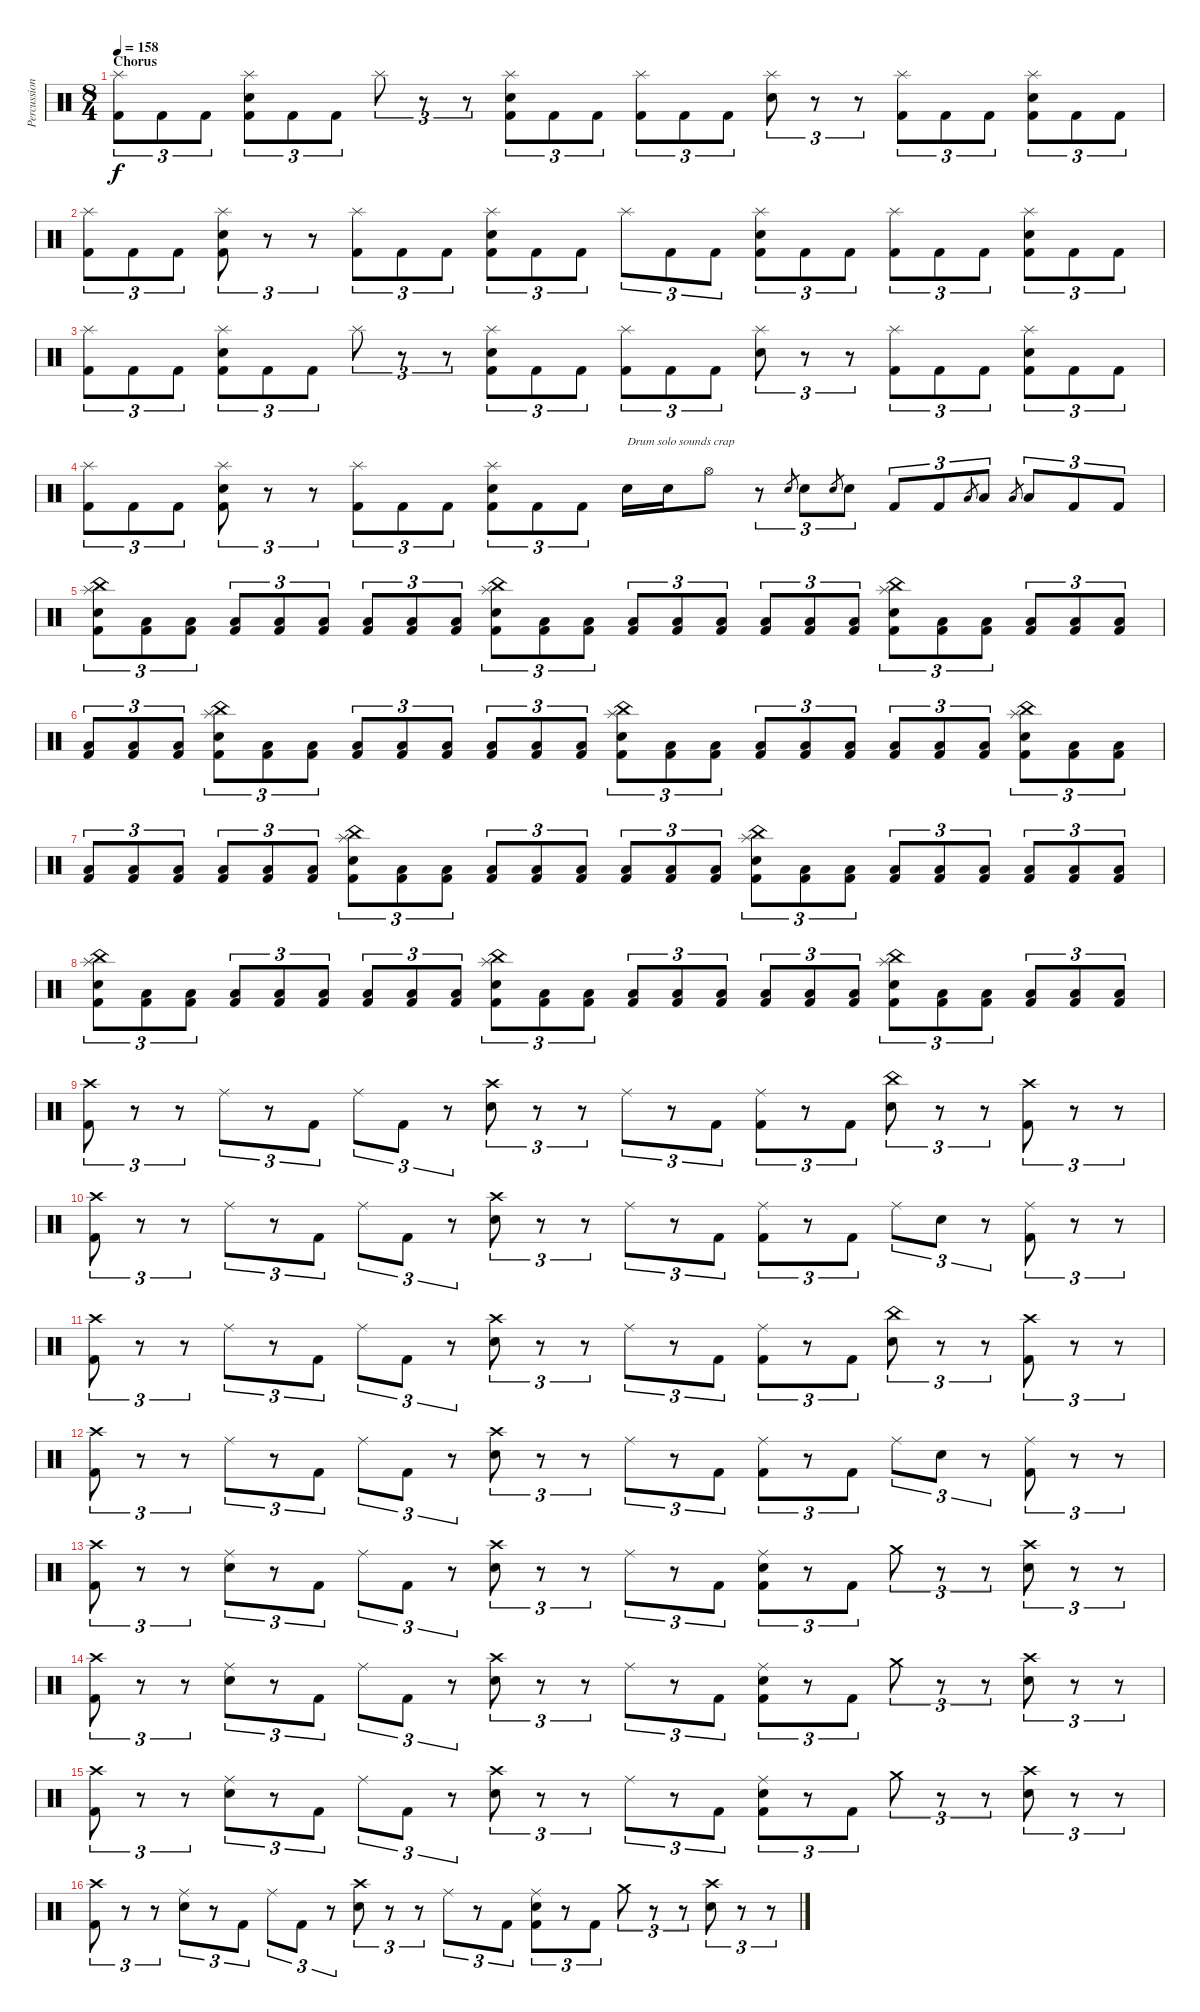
\track ("Percussion" "Percussion") {instrument percussion}
\staff {score}
\articulation defaults
\ts (8 4)
\section ("" "Chorus")
\tempo 158
\clef neutral
\ks c
("Splash (hit)" "Kick (hit) 2").8{tu (3 2) dy f} "Kick (hit) 2".8{tu (3 2)} "Kick (hit) 2".8{tu (3 2)} ("Splash (hit)" "Electric Snare (hit)" "Kick (hit) 2").8{tu (3 2)} "Kick (hit) 2".8{tu (3 2)} "Kick (hit) 2".8{tu (3 2)} "Splash (hit)".8{tu (3 2)} r.8{tu (3 2)} r.8{tu (3 2)} ("Splash (hit)" "Electric Snare (hit)" "Kick (hit) 2").8{tu (3 2)} "Kick (hit) 2".8{tu (3 2)} "Kick (hit) 2".8{tu (3 2)} ("Splash (hit)" "Kick (hit) 2").8{tu (3 2)} "Kick (hit) 2".8{tu (3 2)} "Kick (hit) 2".8{tu (3 2)} ("Splash (hit)" "Electric Snare (hit)").8{tu (3 2)} r.8{tu (3 2)} r.8{tu (3 2)} ("Splash (hit)" "Kick (hit) 2").8{tu (3 2)} "Kick (hit) 2".8{tu (3 2)} "Kick (hit) 2".8{tu (3 2)} ("Splash (hit)" "Electric Snare (hit)" "Kick (hit) 2").8{tu (3 2)} "Kick (hit) 2".8{tu (3 2)} "Kick (hit) 2".8{tu (3 2)} |
("Splash (hit)" "Kick (hit) 2").8{tu (3 2)} "Kick (hit) 2".8{tu (3 2)} "Kick (hit) 2".8{tu (3 2)} ("Splash (hit)" "Electric Snare (hit)" "Kick (hit) 2").8{tu (3 2)} r.8{tu (3 2)} r.8{tu (3 2)} ("Splash (hit)" "Kick (hit) 2").8{tu (3 2)} "Kick (hit) 2".8{tu (3 2)} "Kick (hit) 2".8{tu (3 2)} ("Splash (hit)" "Electric Snare (hit)" "Kick (hit) 2").8{tu (3 2)} "Kick (hit) 2".8{tu (3 2)} "Kick (hit) 2".8{tu (3 2)} "Splash (hit)".8{tu (3 2)} "Kick (hit) 2".8{tu (3 2)} "Kick (hit) 2".8{tu (3 2)} ("Splash (hit)" "Electric Snare (hit)" "Kick (hit) 2").8{tu (3 2)} "Kick (hit) 2".8{tu (3 2)} "Kick (hit) 2".8{tu (3 2)} ("Splash (hit)" "Kick (hit) 2").8{tu (3 2)} "Kick (hit) 2".8{tu (3 2)} "Kick (hit) 2".8{tu (3 2)} ("Splash (hit)" "Electric Snare (hit)" "Kick (hit) 2").8{tu (3 2)} "Kick (hit) 2".8{tu (3 2)} "Kick (hit) 2".8{tu (3 2)} |
("Splash (hit)" "Kick (hit) 2").8{tu (3 2)} "Kick (hit) 2".8{tu (3 2)} "Kick (hit) 2".8{tu (3 2)} ("Splash (hit)" "Electric Snare (hit)" "Kick (hit) 2").8{tu (3 2)} "Kick (hit) 2".8{tu (3 2)} "Kick (hit) 2".8{tu (3 2)} "Splash (hit)".8{tu (3 2)} r.8{tu (3 2)} r.8{tu (3 2)} ("Splash (hit)" "Electric Snare (hit)" "Kick (hit) 2").8{tu (3 2)} "Kick (hit) 2".8{tu (3 2)} "Kick (hit) 2".8{tu (3 2)} ("Splash (hit)" "Kick (hit) 2").8{tu (3 2)} "Kick (hit) 2".8{tu (3 2)} "Kick (hit) 2".8{tu (3 2)} ("Splash (hit)" "Electric Snare (hit)").8{tu (3 2)} r.8{tu (3 2)} r.8{tu (3 2)} ("Splash (hit)" "Kick (hit) 2").8{tu (3 2)} "Kick (hit) 2".8{tu (3 2)} "Kick (hit) 2".8{tu (3 2)} ("Splash (hit)" "Electric Snare (hit)" "Kick (hit) 2").8{tu (3 2)} "Kick (hit) 2".8{tu (3 2)} "Kick (hit) 2".8{tu (3 2)} |
("Splash (hit)" "Kick (hit) 2").8{tu (3 2)} "Kick (hit) 2".8{tu (3 2)} "Kick (hit) 2".8{tu (3 2)} ("Splash (hit)" "Electric Snare (hit)" "Kick (hit) 2").8{tu (3 2)} r.8{tu (3 2)} r.8{tu (3 2)} ("Splash (hit)" "Kick (hit) 2").8{tu (3 2)} "Kick (hit) 2".8{tu (3 2)} "Kick (hit) 2".8{tu (3 2)} ("Splash (hit)" "Electric Snare (hit)" "Kick (hit) 2").8{tu (3 2)} "Kick (hit) 2".8{tu (3 2)} "Kick (hit) 2".8{tu (3 2)} "Electric Snare (hit)".16{txt "Drum solo sounds crap"} "Electric Snare (hit)".16 "Hi-Hat (open)".8 r.8{tu (3 2)} "Electric Snare (hit)".8{gr} "Electric Snare (hit)".8{tu (3 2)} "Electric Snare (hit)".8{gr} "Electric Snare (hit)".8{tu (3 2)} "Kick (hit) 2".8{tu (3 2)} "Kick (hit) 2".8{tu (3 2)} "Low Tom (hit)".8{gr} "Low Tom (hit)".8{tu (3 2)} "Low Tom (hit)".8{gr} "Low Tom (hit)".8{tu (3 2)} "Kick (hit) 2".8{tu (3 2)} "Kick (hit) 2".8{tu (3 2)} |
("China (hit)" "Splash (hit)" "Electric Snare (hit)" "Kick (hit) 2").8{tu (3 2)} ("Low Floor Tom (hit)" "Kick (hit) 2").8{tu (3 2)} ("Low Floor Tom (hit)" "Kick (hit) 2").8{tu (3 2)} ("Low Floor Tom (hit)" "Kick (hit) 2").8{tu (3 2)} ("Low Floor Tom (hit)" "Kick (hit) 2").8{tu (3 2)} ("Low Floor Tom (hit)" "Kick (hit) 2").8{tu (3 2)} ("Low Floor Tom (hit)" "Kick (hit) 2").8{tu (3 2)} ("Low Floor Tom (hit)" "Kick (hit) 2").8{tu (3 2)} ("Low Floor Tom (hit)" "Kick (hit) 2").8{tu (3 2)} ("China (hit)" "Splash (hit)" "Electric Snare (hit)" "Kick (hit) 2").8{tu (3 2)} ("Low Floor Tom (hit)" "Kick (hit) 2").8{tu (3 2)} ("Low Floor Tom (hit)" "Kick (hit) 2").8{tu (3 2)} ("Low Floor Tom (hit)" "Kick (hit) 2").8{tu (3 2)} ("Low Floor Tom (hit)" "Kick (hit) 2").8{tu (3 2)} ("Low Floor Tom (hit)" "Kick (hit) 2").8{tu (3 2)} ("Low Floor Tom (hit)" "Kick (hit) 2").8{tu (3 2)} ("Low Floor Tom (hit)" "Kick (hit) 2").8{tu (3 2)} ("Low Floor Tom (hit)" "Kick (hit) 2").8{tu (3 2)} ("China (hit)" "Splash (hit)" "Electric Snare (hit)" "Kick (hit) 2").8{tu (3 2)} ("Low Floor Tom (hit)" "Kick (hit) 2").8{tu (3 2)} ("Low Floor Tom (hit)" "Kick (hit) 2").8{tu (3 2)} ("Low Floor Tom (hit)" "Kick (hit) 2").8{tu (3 2)} ("Low Floor Tom (hit)" "Kick (hit) 2").8{tu (3 2)} ("Low Floor Tom (hit)" "Kick (hit) 2").8{tu (3 2)} |
("Low Floor Tom (hit)" "Kick (hit) 2").8{tu (3 2)} ("Low Floor Tom (hit)" "Kick (hit) 2").8{tu (3 2)} ("Low Floor Tom (hit)" "Kick (hit) 2").8{tu (3 2)} ("China (hit)" "Splash (hit)" "Electric Snare (hit)" "Kick (hit) 2").8{tu (3 2)} ("Low Floor Tom (hit)" "Kick (hit) 2").8{tu (3 2)} ("Low Floor Tom (hit)" "Kick (hit) 2").8{tu (3 2)} ("Low Floor Tom (hit)" "Kick (hit) 2").8{tu (3 2)} ("Low Floor Tom (hit)" "Kick (hit) 2").8{tu (3 2)} ("Low Floor Tom (hit)" "Kick (hit) 2").8{tu (3 2)} ("Low Floor Tom (hit)" "Kick (hit) 2").8{tu (3 2)} ("Low Floor Tom (hit)" "Kick (hit) 2").8{tu (3 2)} ("Low Floor Tom (hit)" "Kick (hit) 2").8{tu (3 2)} ("China (hit)" "Splash (hit)" "Electric Snare (hit)" "Kick (hit) 2").8{tu (3 2)} ("Low Floor Tom (hit)" "Kick (hit) 2").8{tu (3 2)} ("Low Floor Tom (hit)" "Kick (hit) 2").8{tu (3 2)} ("Low Floor Tom (hit)" "Kick (hit) 2").8{tu (3 2)} ("Low Floor Tom (hit)" "Kick (hit) 2").8{tu (3 2)} ("Low Floor Tom (hit)" "Kick (hit) 2").8{tu (3 2)} ("Low Floor Tom (hit)" "Kick (hit) 2").8{tu (3 2)} ("Low Floor Tom (hit)" "Kick (hit) 2").8{tu (3 2)} ("Low Floor Tom (hit)" "Kick (hit) 2").8{tu (3 2)} ("China (hit)" "Splash (hit)" "Electric Snare (hit)" "Kick (hit) 2").8{tu (3 2)} ("Low Floor Tom (hit)" "Kick (hit) 2").8{tu (3 2)} ("Low Floor Tom (hit)" "Kick (hit) 2").8{tu (3 2)} |
("Low Floor Tom (hit)" "Kick (hit) 2").8{tu (3 2)} ("Low Floor Tom (hit)" "Kick (hit) 2").8{tu (3 2)} ("Low Floor Tom (hit)" "Kick (hit) 2").8{tu (3 2)} ("Low Floor Tom (hit)" "Kick (hit) 2").8{tu (3 2)} ("Low Floor Tom (hit)" "Kick (hit) 2").8{tu (3 2)} ("Low Floor Tom (hit)" "Kick (hit) 2").8{tu (3 2)} ("China (hit)" "Splash (hit)" "Electric Snare (hit)" "Kick (hit) 2").8{tu (3 2)} ("Low Floor Tom (hit)" "Kick (hit) 2").8{tu (3 2)} ("Low Floor Tom (hit)" "Kick (hit) 2").8{tu (3 2)} ("Low Floor Tom (hit)" "Kick (hit) 2").8{tu (3 2)} ("Low Floor Tom (hit)" "Kick (hit) 2").8{tu (3 2)} ("Low Floor Tom (hit)" "Kick (hit) 2").8{tu (3 2)} ("Low Floor Tom (hit)" "Kick (hit) 2").8{tu (3 2)} ("Low Floor Tom (hit)" "Kick (hit) 2").8{tu (3 2)} ("Low Floor Tom (hit)" "Kick (hit) 2").8{tu (3 2)} ("China (hit)" "Splash (hit)" "Electric Snare (hit)" "Kick (hit) 2").8{tu (3 2)} ("Low Floor Tom (hit)" "Kick (hit) 2").8{tu (3 2)} ("Low Floor Tom (hit)" "Kick (hit) 2").8{tu (3 2)} ("Low Floor Tom (hit)" "Kick (hit) 2").8{tu (3 2)} ("Low Floor Tom (hit)" "Kick (hit) 2").8{tu (3 2)} ("Low Floor Tom (hit)" "Kick (hit) 2").8{tu (3 2)} ("Low Floor Tom (hit)" "Kick (hit) 2").8{tu (3 2)} ("Low Floor Tom (hit)" "Kick (hit) 2").8{tu (3 2)} ("Low Floor Tom (hit)" "Kick (hit) 2").8{tu (3 2)} |
("Splash (hit)" "China (hit)" "Electric Snare (hit)" "Kick (hit) 2").8{tu (3 2)} ("Low Floor Tom (hit)" "Kick (hit) 2").8{tu (3 2)} ("Low Floor Tom (hit)" "Kick (hit) 2").8{tu (3 2)} ("Low Floor Tom (hit)" "Kick (hit) 2").8{tu (3 2)} ("Low Floor Tom (hit)" "Kick (hit) 2").8{tu (3 2)} ("Low Floor Tom (hit)" "Kick (hit) 2").8{tu (3 2)} ("Low Floor Tom (hit)" "Kick (hit) 2").8{tu (3 2)} ("Low Floor Tom (hit)" "Kick (hit) 2").8{tu (3 2)} ("Low Floor Tom (hit)" "Kick (hit) 2").8{tu (3 2)} ("Splash (hit)" "China (hit)" "Electric Snare (hit)" "Kick (hit) 2").8{tu (3 2)} ("Low Floor Tom (hit)" "Kick (hit) 2").8{tu (3 2)} ("Low Floor Tom (hit)" "Kick (hit) 2").8{tu (3 2)} ("Low Floor Tom (hit)" "Kick (hit) 2").8{tu (3 2)} ("Low Floor Tom (hit)" "Kick (hit) 2").8{tu (3 2)} ("Low Floor Tom (hit)" "Kick (hit) 2").8{tu (3 2)} ("Low Floor Tom (hit)" "Kick (hit) 2").8{tu (3 2)} ("Low Floor Tom (hit)" "Kick (hit) 2").8{tu (3 2)} ("Low Floor Tom (hit)" "Kick (hit) 2").8{tu (3 2)} ("Splash (hit)" "China (hit)" "Electric Snare (hit)" "Kick (hit) 2").8{tu (3 2)} ("Low Floor Tom (hit)" "Kick (hit) 2").8{tu (3 2)} ("Low Floor Tom (hit)" "Kick (hit) 2").8{tu (3 2)} ("Low Floor Tom (hit)" "Kick (hit) 2").8{tu (3 2)} ("Low Floor Tom (hit)" "Kick (hit) 2").8{tu (3 2)} ("Low Floor Tom (hit)" "Kick (hit) 2").8{tu (3 2)} |
("Crash high (hit)" "Kick (hit) 2").8{tu (3 2)} r.8{tu (3 2)} r.8{tu (3 2)} "Ride (middle)".8{tu (3 2)} r.8{tu (3 2)} "Kick (hit) 2".8{tu (3 2)} "Ride (middle)".8{tu (3 2)} "Kick (hit) 2".8{tu (3 2)} r.8{tu (3 2)} ("Crash high (hit)" "Electric Snare (hit)").8{tu (3 2)} r.8{tu (3 2)} r.8{tu (3 2)} "Ride (middle)".8{tu (3 2)} r.8{tu (3 2)} "Kick (hit) 2".8{tu (3 2)} ("Ride (middle)" "Kick (hit) 2").8{tu (3 2)} r.8{tu (3 2)} "Kick (hit) 2".8{tu (3 2)} ("China (hit)" "Electric Snare (hit)").8{tu (3 2)} r.8{tu (3 2)} r.8{tu (3 2)} ("Crash high (hit)" "Kick (hit) 2").8{tu (3 2)} r.8{tu (3 2)} r.8{tu (3 2)} |
("Crash high (hit)" "Kick (hit) 2").8{tu (3 2)} r.8{tu (3 2)} r.8{tu (3 2)} "Ride (middle)".8{tu (3 2)} r.8{tu (3 2)} "Kick (hit) 2".8{tu (3 2)} "Ride (middle)".8{tu (3 2)} "Kick (hit) 2".8{tu (3 2)} r.8{tu (3 2)} ("Crash high (hit)" "Electric Snare (hit)").8{tu (3 2)} r.8{tu (3 2)} r.8{tu (3 2)} "Ride (middle)".8{tu (3 2)} r.8{tu (3 2)} "Kick (hit) 2".8{tu (3 2)} ("Ride (middle)" "Kick (hit) 2").8{tu (3 2)} r.8{tu (3 2)} "Kick (hit) 2".8{tu (3 2)} "Ride (middle)".8{tu (3 2)} "Electric Snare (hit)".8{tu (3 2)} r.8{tu (3 2)} ("Ride (middle)" "Kick (hit) 2").8{tu (3 2)} r.8{tu (3 2)} r.8{tu (3 2)} |
("Crash high (hit)" "Kick (hit) 2").8{tu (3 2)} r.8{tu (3 2)} r.8{tu (3 2)} "Ride (middle)".8{tu (3 2)} r.8{tu (3 2)} "Kick (hit) 2".8{tu (3 2)} "Ride (middle)".8{tu (3 2)} "Kick (hit) 2".8{tu (3 2)} r.8{tu (3 2)} ("Crash high (hit)" "Electric Snare (hit)").8{tu (3 2)} r.8{tu (3 2)} r.8{tu (3 2)} "Ride (middle)".8{tu (3 2)} r.8{tu (3 2)} "Kick (hit) 2".8{tu (3 2)} ("Ride (middle)" "Kick (hit) 2").8{tu (3 2)} r.8{tu (3 2)} "Kick (hit) 2".8{tu (3 2)} ("China (hit)" "Electric Snare (hit)").8{tu (3 2)} r.8{tu (3 2)} r.8{tu (3 2)} ("Crash high (hit)" "Kick (hit) 2").8{tu (3 2)} r.8{tu (3 2)} r.8{tu (3 2)} |
("Crash high (hit)" "Kick (hit) 2").8{tu (3 2)} r.8{tu (3 2)} r.8{tu (3 2)} "Ride (middle)".8{tu (3 2)} r.8{tu (3 2)} "Kick (hit) 2".8{tu (3 2)} "Ride (middle)".8{tu (3 2)} "Kick (hit) 2".8{tu (3 2)} r.8{tu (3 2)} ("Crash high (hit)" "Electric Snare (hit)").8{tu (3 2)} r.8{tu (3 2)} r.8{tu (3 2)} "Ride (middle)".8{tu (3 2)} r.8{tu (3 2)} "Kick (hit) 2".8{tu (3 2)} ("Ride (middle)" "Kick (hit) 2").8{tu (3 2)} r.8{tu (3 2)} "Kick (hit) 2".8{tu (3 2)} "Ride (middle)".8{tu (3 2)} "Electric Snare (hit)".8{tu (3 2)} r.8{tu (3 2)} ("Ride (middle)" "Kick (hit) 2").8{tu (3 2)} r.8{tu (3 2)} r.8{tu (3 2)} |
("Crash high (hit)" "Kick (hit) 2").8{tu (3 2)} r.8{tu (3 2)} r.8{tu (3 2)} ("Ride (middle)" "Electric Snare (hit)").8{tu (3 2)} r.8{tu (3 2)} "Kick (hit) 2".8{tu (3 2)} "Ride (middle)".8{tu (3 2)} "Kick (hit) 2".8{tu (3 2)} r.8{tu (3 2)} ("Crash high (hit)" "Electric Snare (hit)").8{tu (3 2)} r.8{tu (3 2)} r.8{tu (3 2)} "Ride (middle)".8{tu (3 2)} r.8{tu (3 2)} "Kick (hit) 2".8{tu (3 2)} ("Ride (middle)" "Electric Snare (hit)" "Kick (hit) 2").8{tu (3 2)} r.8{tu (3 2)} "Kick (hit) 2".8{tu (3 2)} "Crash medium (hit)".8{tu (3 2)} r.8{tu (3 2)} r.8{tu (3 2)} ("Crash high (hit)" "Electric Snare (hit)").8{tu (3 2)} r.8{tu (3 2)} r.8{tu (3 2)} |
("Crash high (hit)" "Kick (hit) 2").8{tu (3 2)} r.8{tu (3 2)} r.8{tu (3 2)} ("Ride (middle)" "Electric Snare (hit)").8{tu (3 2)} r.8{tu (3 2)} "Kick (hit) 2".8{tu (3 2)} "Ride (middle)".8{tu (3 2)} "Kick (hit) 2".8{tu (3 2)} r.8{tu (3 2)} ("Crash high (hit)" "Electric Snare (hit)").8{tu (3 2)} r.8{tu (3 2)} r.8{tu (3 2)} "Ride (middle)".8{tu (3 2)} r.8{tu (3 2)} "Kick (hit) 2".8{tu (3 2)} ("Ride (middle)" "Electric Snare (hit)" "Kick (hit) 2").8{tu (3 2)} r.8{tu (3 2)} "Kick (hit) 2".8{tu (3 2)} "Crash medium (hit)".8{tu (3 2)} r.8{tu (3 2)} r.8{tu (3 2)} ("Crash high (hit)" "Electric Snare (hit)").8{tu (3 2)} r.8{tu (3 2)} r.8{tu (3 2)} |
("Crash high (hit)" "Kick (hit) 2").8{tu (3 2)} r.8{tu (3 2)} r.8{tu (3 2)} ("Ride (middle)" "Electric Snare (hit)").8{tu (3 2)} r.8{tu (3 2)} "Kick (hit) 2".8{tu (3 2)} "Ride (middle)".8{tu (3 2)} "Kick (hit) 2".8{tu (3 2)} r.8{tu (3 2)} ("Crash high (hit)" "Electric Snare (hit)").8{tu (3 2)} r.8{tu (3 2)} r.8{tu (3 2)} "Ride (middle)".8{tu (3 2)} r.8{tu (3 2)} "Kick (hit) 2".8{tu (3 2)} ("Ride (middle)" "Electric Snare (hit)" "Kick (hit) 2").8{tu (3 2)} r.8{tu (3 2)} "Kick (hit) 2".8{tu (3 2)} "Crash medium (hit)".8{tu (3 2)} r.8{tu (3 2)} r.8{tu (3 2)} ("Crash high (hit)" "Electric Snare (hit)").8{tu (3 2)} r.8{tu (3 2)} r.8{tu (3 2)} |
("Crash high (hit)" "Kick (hit) 2").8{tu (3 2)} r.8{tu (3 2)} r.8{tu (3 2)} ("Ride (middle)" "Electric Snare (hit)").8{tu (3 2)} r.8{tu (3 2)} "Kick (hit) 2".8{tu (3 2)} "Ride (middle)".8{tu (3 2)} "Kick (hit) 2".8{tu (3 2)} r.8{tu (3 2)} ("Crash high (hit)" "Electric Snare (hit)").8{tu (3 2)} r.8{tu (3 2)} r.8{tu (3 2)} "Ride (middle)".8{tu (3 2)} r.8{tu (3 2)} "Kick (hit) 2".8{tu (3 2)} ("Ride (middle)" "Electric Snare (hit)" "Kick (hit) 2").8{tu (3 2)} r.8{tu (3 2)} "Kick (hit) 2".8{tu (3 2)} "Crash medium (hit)".8{tu (3 2)} r.8{tu (3 2)} r.8{tu (3 2)} ("Crash high (hit)" "Electric Snare (hit)").8{tu (3 2)} r.8{tu (3 2)} r.8{tu (3 2)}
